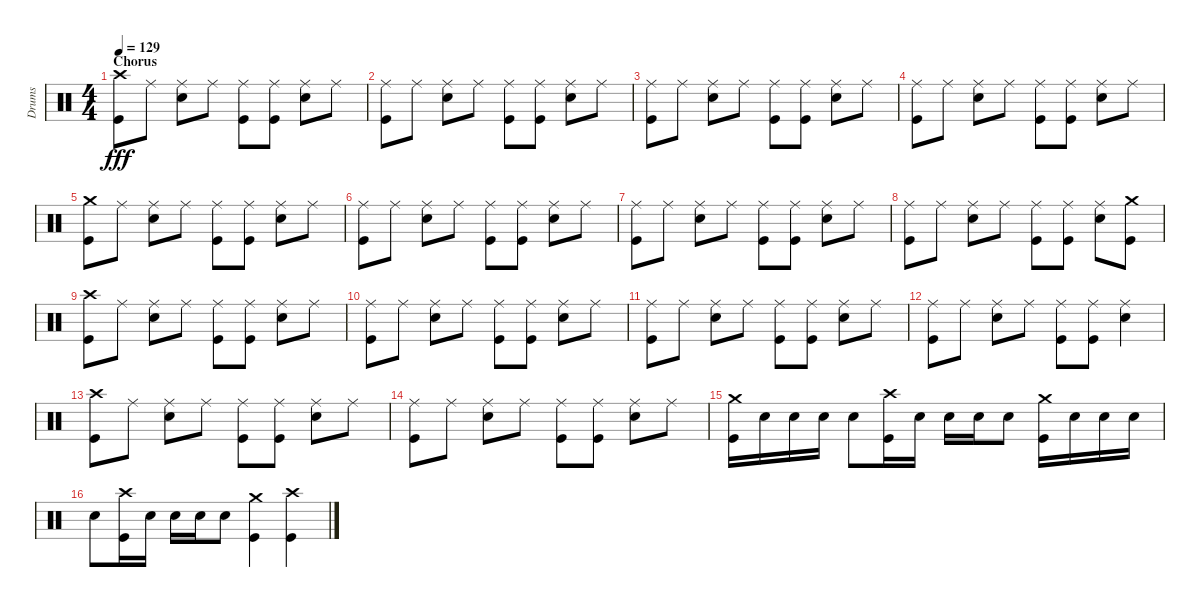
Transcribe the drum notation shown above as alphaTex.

\track ("Drums" "Drums") {instrument percussion}
\staff {score}
\articulation defaults
\ts (4 4)
\section ("" "Chorus")
\tempo 129
\clef neutral
\ks c
("Crash high (hit)" "Kick (hit)").8{dy fff} "Ride (middle)".8 ("Ride (middle)" "Snare (hit) 2").8 "Ride (middle)".8 ("Ride (middle)" "Kick (hit)").8 ("Ride (middle)" "Kick (hit)").8 ("Ride (middle)" "Snare (hit) 2").8 "Ride (middle)".8 |
("Ride (middle)" "Kick (hit)").8 "Ride (middle)".8 ("Ride (middle)" "Snare (hit) 2").8 "Ride (middle)".8 ("Ride (middle)" "Kick (hit)").8 ("Ride (middle)" "Kick (hit)").8 ("Ride (middle)" "Snare (hit) 2").8 "Ride (middle)".8 |
("Ride (middle)" "Kick (hit)").8 "Ride (middle)".8 ("Ride (middle)" "Snare (hit) 2").8 "Ride (middle)".8 ("Ride (middle)" "Kick (hit)").8 ("Ride (middle)" "Kick (hit)").8 ("Ride (middle)" "Snare (hit) 2").8 "Ride (middle)".8 |
("Ride (middle)" "Kick (hit)").8 "Ride (middle)".8 ("Ride (middle)" "Snare (hit) 2").8 "Ride (middle)".8 ("Ride (middle)" "Kick (hit)").8 ("Ride (middle)" "Kick (hit)").8 ("Ride (middle)" "Snare (hit) 2").8 "Ride (middle)".8 |
("Crash medium (hit)" "Kick (hit)").8 "Ride (middle)".8 ("Ride (middle)" "Snare (hit) 2").8 "Ride (middle)".8 ("Ride (middle)" "Kick (hit)").8 ("Ride (middle)" "Kick (hit)").8 ("Ride (middle)" "Snare (hit) 2").8 "Ride (middle)".8 |
("Ride (middle)" "Kick (hit)").8 "Ride (middle)".8 ("Ride (middle)" "Snare (hit) 2").8 "Ride (middle)".8 ("Ride (middle)" "Kick (hit)").8 ("Ride (middle)" "Kick (hit)").8 ("Ride (middle)" "Snare (hit) 2").8 "Ride (middle)".8 |
("Ride (middle)" "Kick (hit)").8 "Ride (middle)".8 ("Ride (middle)" "Snare (hit) 2").8 "Ride (middle)".8 ("Ride (middle)" "Kick (hit)").8 ("Ride (middle)" "Kick (hit)").8 ("Ride (middle)" "Snare (hit) 2").8 "Ride (middle)".8 |
("Ride (middle)" "Kick (hit)").8 "Ride (middle)".8 ("Ride (middle)" "Snare (hit) 2").8 "Ride (middle)".8 ("Ride (middle)" "Kick (hit)").8 ("Ride (middle)" "Kick (hit)").8 ("Ride (middle)" "Snare (hit) 2").8 ("Crash medium (hit)" "Kick (hit)").8 |
("Crash high (hit)" "Kick (hit)").8 "Ride (middle)".8 ("Ride (middle)" "Snare (hit) 2").8 "Ride (middle)".8 ("Ride (middle)" "Kick (hit)").8 ("Ride (middle)" "Kick (hit)").8 ("Ride (middle)" "Snare (hit) 2").8 "Ride (middle)".8 |
("Ride (middle)" "Kick (hit)").8 "Ride (middle)".8 ("Ride (middle)" "Snare (hit) 2").8 "Ride (middle)".8 ("Ride (middle)" "Kick (hit)").8 ("Ride (middle)" "Kick (hit)").8 ("Ride (middle)" "Snare (hit) 2").8 "Ride (middle)".8 |
("Ride (middle)" "Kick (hit)").8 "Ride (middle)".8 ("Ride (middle)" "Snare (hit) 2").8 "Ride (middle)".8 ("Ride (middle)" "Kick (hit)").8 ("Ride (middle)" "Kick (hit)").8 ("Ride (middle)" "Snare (hit) 2").8 "Ride (middle)".8 |
("Ride (middle)" "Kick (hit)").8 "Ride (middle)".8 ("Ride (middle)" "Snare (hit) 2").8 "Ride (middle)".8 ("Ride (middle)" "Kick (hit)").8 ("Ride (middle)" "Kick (hit)").8 ("Ride (middle)" "Snare (hit) 2").4 |
("Crash high (hit)" "Kick (hit)").8 "Ride (middle)".8 ("Ride (middle)" "Snare (hit) 2").8 "Ride (middle)".8 ("Ride (middle)" "Kick (hit)").8 ("Ride (middle)" "Kick (hit)").8 ("Ride (middle)" "Snare (hit) 2").8 "Ride (middle)".8 |
("Ride (middle)" "Kick (hit)").8 "Ride (middle)".8 ("Ride (middle)" "Snare (hit) 2").8 "Ride (middle)".8 ("Ride (middle)" "Kick (hit)").8 ("Ride (middle)" "Kick (hit)").8 ("Ride (middle)" "Snare (hit) 2").8 "Ride (middle)".8 |
("Crash medium (hit)" "Kick (hit)").16 "Snare (hit) 2".16 "Snare (hit) 2".16 "Snare (hit) 2".16 "Snare (hit) 2".8 ("Crash high (hit)" "Kick (hit)").16 "Snare (hit) 2".16 "Snare (hit) 2".16 "Snare (hit) 2".16 "Snare (hit) 2".8 ("Crash medium (hit)" "Kick (hit)").16 "Snare (hit) 2".16 "Snare (hit) 2".16 "Snare (hit) 2".16 |
"Snare (hit) 2".8 ("Crash high (hit)" "Kick (hit)").16 "Snare (hit) 2".16 "Snare (hit) 2".16 "Snare (hit) 2".16 "Snare (hit) 2".8 ("Crash medium (hit)" "Kick (hit)").4 ("Crash high (hit)" "Kick (hit)").4
